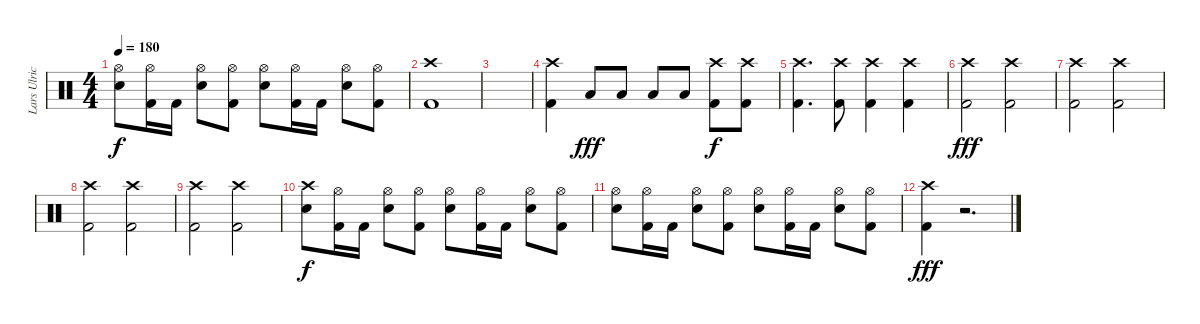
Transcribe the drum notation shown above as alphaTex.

\track ("Lars Ulrich" "Lars Ulric") {instrument percussion}
\staff {score}
\articulation defaults
\ts (4 4)
\tempo 180
\clef neutral
\ks c
("Snare (hit) 2" "Hi-Hat (open)").8{dy f} ("Kick (hit) 2" "Hi-Hat (open)").16 "Kick (hit) 2".16 ("Snare (hit) 2" "Hi-Hat (open)").8 ("Kick (hit) 2" "Hi-Hat (open)").8 ("Snare (hit) 2" "Hi-Hat (open)").8 ("Kick (hit) 2" "Hi-Hat (open)").16 "Kick (hit) 2".16 ("Snare (hit) 2" "Hi-Hat (open)").8 ("Kick (hit) 2" "Hi-Hat (open)").8 |
("Kick (hit) 2" "Crash high (hit)").1 |
|
("Kick (hit) 2" "Crash high (hit)").4 "Low Tom (hit)".8{dy fff} "Low Tom (hit)".8 "Low Tom (hit)".8 "Low Tom (hit)".8 ("Kick (hit) 2" "Crash high (hit)").8{dy f} ("Kick (hit) 2" "Crash high (hit)").8 |
("Kick (hit) 2" "Crash high (hit)").4{d} ("Kick (hit) 2" "Crash high (hit)").8 ("Kick (hit) 2" "Crash high (hit)").4 ("Kick (hit) 2" "Crash high (hit)").4 |
("Kick (hit) 2" "Crash high (hit)").2{dy fff} ("Kick (hit) 2" "Crash high (hit)").2 |
("Kick (hit) 2" "Crash high (hit)").2 ("Kick (hit) 2" "Crash high (hit)").2 |
("Kick (hit) 2" "Crash high (hit)").2 ("Kick (hit) 2" "Crash high (hit)").2 |
("Kick (hit) 2" "Crash high (hit)").2 ("Kick (hit) 2" "Crash high (hit)").2 |
("Snare (hit) 2" "Crash high (hit)").8{dy f} ("Kick (hit) 2" "Hi-Hat (open)").16 "Kick (hit) 2".16 ("Snare (hit) 2" "Hi-Hat (open)").8 ("Kick (hit) 2" "Hi-Hat (open)").8 ("Snare (hit) 2" "Hi-Hat (open)").8 ("Kick (hit) 2" "Hi-Hat (open)").16 "Kick (hit) 2".16 ("Snare (hit) 2" "Hi-Hat (open)").8 ("Kick (hit) 2" "Hi-Hat (open)").8 |
("Snare (hit) 2" "Hi-Hat (open)").8 ("Kick (hit) 2" "Hi-Hat (open)").16 "Kick (hit) 2".16 ("Snare (hit) 2" "Hi-Hat (open)").8 ("Kick (hit) 2" "Hi-Hat (open)").8 ("Snare (hit) 2" "Hi-Hat (open)").8 ("Kick (hit) 2" "Hi-Hat (open)").16 "Kick (hit) 2".16 ("Snare (hit) 2" "Hi-Hat (open)").8 ("Kick (hit) 2" "Hi-Hat (open)").8 |
("Kick (hit) 2" "Crash high (hit)").4{dy fff} r.2{d}
